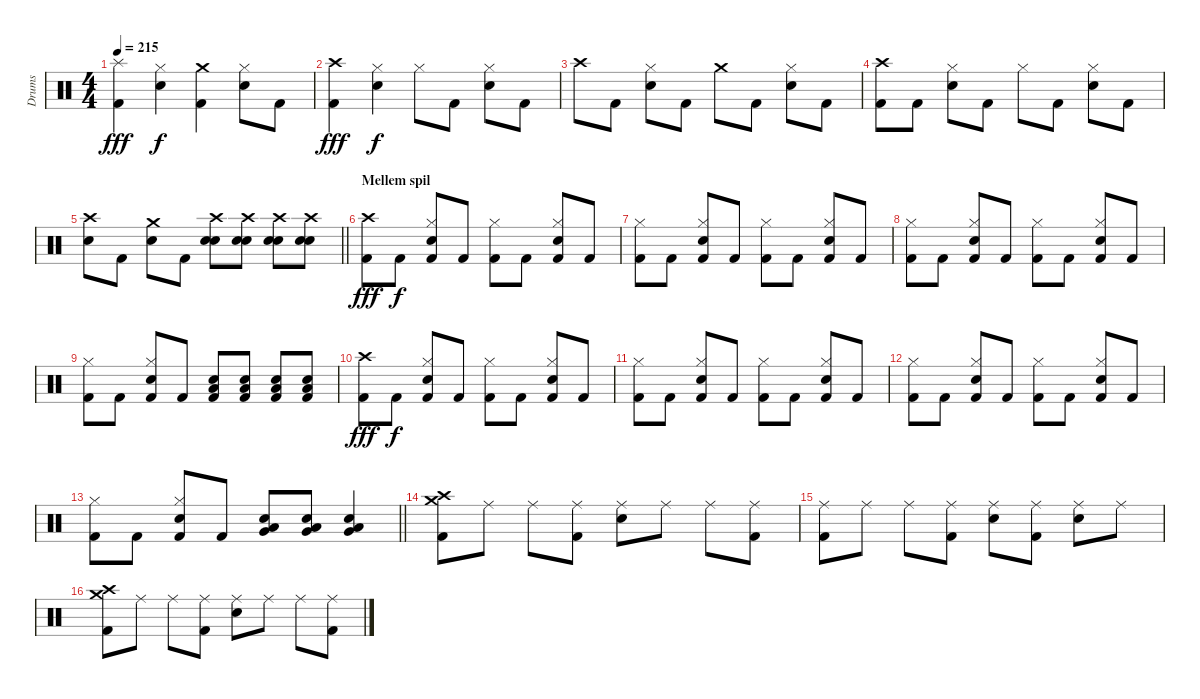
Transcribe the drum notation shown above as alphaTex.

\track ("Drums" "Drums") {instrument percussion}
\staff {score}
\articulation defaults
\ts (4 4)
\tempo 215
\clef neutral
\ks c
("Splash (hit)" "Kick (hit) 2").4{dy fff} ("Hi-Hat (closed)" "Snare (hit) 2").4{dy f} ("Crash medium (hit)" "Kick (hit) 2").4 ("Hi-Hat (closed)" "Snare (hit) 2").8 "Kick (hit) 2".8 |
("Crash high (hit)" "Kick (hit) 2").4{dy fff} ("Hi-Hat (closed)" "Snare (hit) 2").4{dy f} "Hi-Hat (closed)".8 "Kick (hit) 2".8 ("Hi-Hat (closed)" "Snare (hit) 2").8 "Kick (hit) 2".8 |
"Crash high (hit)".8 "Kick (hit) 2".8 ("Hi-Hat (closed)" "Snare (hit) 2").8 "Kick (hit) 2".8 "Crash medium (hit)".8 "Kick (hit) 2".8 ("Hi-Hat (closed)" "Snare (hit) 2").8 "Kick (hit) 2".8 |
("Crash high (hit)" "Kick (hit) 2").8 "Kick (hit) 2".8 ("Hi-Hat (closed)" "Snare (hit) 2").8 "Kick (hit) 2".8 "Hi-Hat (closed)".8 "Kick (hit) 2".8 ("Hi-Hat (closed)" "Snare (hit) 2").8 "Kick (hit) 2".8 |
\barLineRight lightlight
("Crash high (hit)" "Snare (hit) 2").8 "Kick (hit) 2".8 ("Crash medium (hit)" "Snare (hit) 2").8 "Kick (hit) 2".8 ("Crash high (hit)" "Snare (hit) 2" "Snare (hit) 2").8 ("Crash high (hit)" "Snare (hit) 2" "Snare (hit) 2").8 ("Crash high (hit)" "Snare (hit) 2" "Snare (hit) 2").8 ("Crash high (hit)" "Snare (hit) 2" "Snare (hit) 2").8 |
\section ("" "Mellem spil")
("Crash high (hit)" "Kick (hit) 2").8{dy fff} "Kick (hit) 2".8{dy f} ("Hi-Hat (closed)" "Snare (hit) 2" "Kick (hit) 2").8 "Kick (hit) 2".8 ("Hi-Hat (closed)" "Kick (hit) 2").8 "Kick (hit) 2".8 ("Hi-Hat (closed)" "Snare (hit) 2" "Kick (hit) 2").8 "Kick (hit) 2".8 |
("Hi-Hat (closed)" "Kick (hit) 2").8 "Kick (hit) 2".8 ("Hi-Hat (closed)" "Snare (hit) 2" "Kick (hit) 2").8 "Kick (hit) 2".8 ("Hi-Hat (closed)" "Kick (hit) 2").8 "Kick (hit) 2".8 ("Hi-Hat (closed)" "Snare (hit) 2" "Kick (hit) 2").8 "Kick (hit) 2".8 |
("Hi-Hat (closed)" "Kick (hit) 2").8 "Kick (hit) 2".8 ("Hi-Hat (closed)" "Snare (hit) 2" "Kick (hit) 2").8 "Kick (hit) 2".8 ("Hi-Hat (closed)" "Kick (hit) 2").8 "Kick (hit) 2".8 ("Hi-Hat (closed)" "Snare (hit) 2" "Kick (hit) 2").8 "Kick (hit) 2".8 |
("Hi-Hat (closed)" "Kick (hit) 2").8 "Kick (hit) 2".8 ("Hi-Hat (closed)" "Snare (hit) 2" "Kick (hit) 2").8 "Kick (hit) 2".8 ("Low Tom (hit)" "Snare (hit) 2" "Kick (hit) 2").8 ("Low Tom (hit)" "Snare (hit) 2" "Kick (hit) 2").8 ("Low Tom (hit)" "Snare (hit) 2" "Kick (hit) 2").8 ("Low Tom (hit)" "Snare (hit) 2" "Kick (hit) 2").8 |
("Crash high (hit)" "Kick (hit) 2").8{dy fff} "Kick (hit) 2".8{dy f} ("Hi-Hat (closed)" "Snare (hit) 2" "Kick (hit) 2").8 "Kick (hit) 2".8 ("Hi-Hat (closed)" "Kick (hit) 2").8 "Kick (hit) 2".8 ("Hi-Hat (closed)" "Snare (hit) 2" "Kick (hit) 2").8 "Kick (hit) 2".8 |
("Hi-Hat (closed)" "Kick (hit) 2").8 "Kick (hit) 2".8 ("Hi-Hat (closed)" "Snare (hit) 2" "Kick (hit) 2").8 "Kick (hit) 2".8 ("Hi-Hat (closed)" "Kick (hit) 2").8 "Kick (hit) 2".8 ("Hi-Hat (closed)" "Snare (hit) 2" "Kick (hit) 2").8 "Kick (hit) 2".8 |
("Hi-Hat (closed)" "Kick (hit) 2").8 "Kick (hit) 2".8 ("Hi-Hat (closed)" "Snare (hit) 2" "Kick (hit) 2").8 "Kick (hit) 2".8 ("Hi-Hat (closed)" "Kick (hit) 2").8 "Kick (hit) 2".8 ("Hi-Hat (closed)" "Snare (hit) 2" "Kick (hit) 2").8 "Kick (hit) 2".8 |
\barLineRight lightlight
("Hi-Hat (closed)" "Kick (hit) 2").8 "Kick (hit) 2".8 ("Hi-Hat (closed)" "Snare (hit) 2" "Kick (hit) 2").8 "Kick (hit) 2".8 ("Low Tom (hit)" "Very Low Tom (hit)" "Snare (hit) 2").8 ("Low Tom (hit)" "Very Low Tom (hit)" "Snare (hit) 2").8 ("Low Tom (hit)" "Very Low Tom (hit)" "Snare (hit) 2").4 |
("Crash medium (hit)" "Crash high (hit)" "Kick (hit) 2").8 "Ride (middle)".8 "Ride (middle)".8 ("Ride (middle)" "Kick (hit) 2").8 ("Ride (middle)" "Snare (hit) 2").8 "Ride (middle)".8 "Ride (middle)".8 ("Ride (middle)" "Kick (hit) 2").8 |
("Ride (middle)" "Kick (hit) 2").8 "Ride (middle)".8 "Ride (middle)".8 ("Ride (middle)" "Kick (hit) 2").8 ("Ride (middle)" "Snare (hit) 2").8 ("Ride (middle)" "Kick (hit) 2").8 ("Ride (middle)" "Snare (hit) 2").8 "Ride (middle)".8 |
("Crash medium (hit)" "Crash high (hit)" "Kick (hit) 2").8 "Ride (middle)".8 "Ride (middle)".8 ("Ride (middle)" "Kick (hit) 2").8 ("Ride (middle)" "Snare (hit) 2").8 "Ride (middle)".8 "Ride (middle)".8 ("Ride (middle)" "Kick (hit) 2").8
